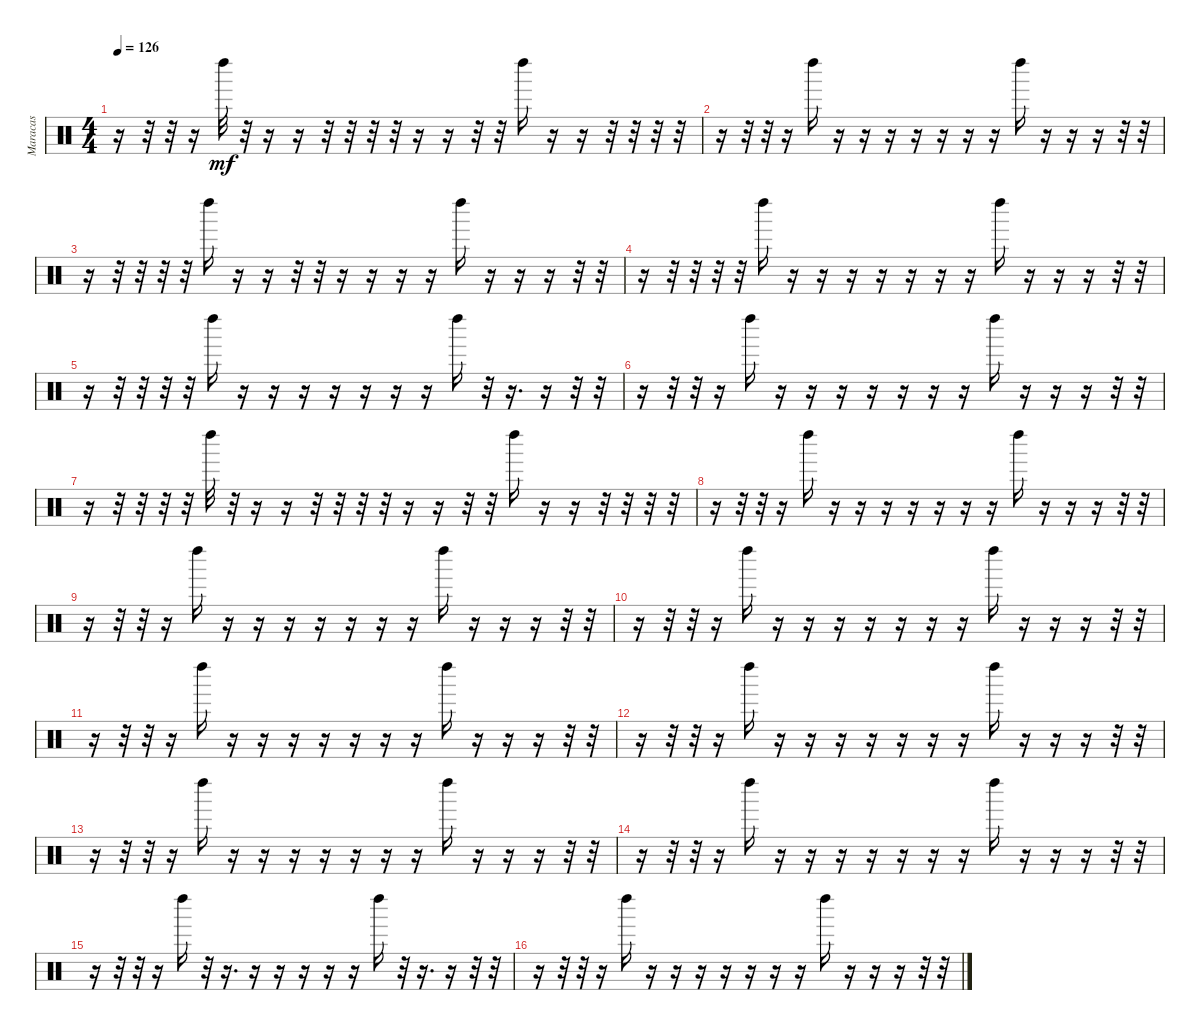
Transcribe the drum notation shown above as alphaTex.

\track ("Maracas" "Maracas") {instrument percussion}
\staff {score}
\articulation defaults
\ts (4 4)
\tempo 126
\clef neutral
\ks c
r.16{dy mf} r.32 r.32 r.16 "Left Maraca (hit)".32 r.32 r.16 r.16 r.32 r.32 r.32 r.32 r.16 r.16 r.32 r.32 "Left Maraca (hit)".16 r.16 r.16 r.32 r.32 r.32 r.32 |
r.16 r.32 r.32 r.16 "Left Maraca (hit)".16 r.16 r.16 r.16 r.16 r.16 r.16 r.16 "Left Maraca (hit)".16 r.16 r.16 r.16 r.32 r.32 |
r.16 r.32 r.32 r.32 r.32 "Left Maraca (hit)".16 r.16 r.16 r.32 r.32 r.16 r.16 r.16 r.16 "Left Maraca (hit)".16 r.16 r.16 r.16 r.32 r.32 |
r.16 r.32 r.32 r.32 r.32 "Left Maraca (hit)".16 r.16 r.16 r.16 r.16 r.16 r.16 r.16 "Left Maraca (hit)".16 r.16 r.16 r.16 r.32 r.32 |
r.16 r.32 r.32 r.32 r.32 "Left Maraca (hit)".16 r.16 r.16 r.16 r.16 r.16 r.16 r.16 "Left Maraca (hit)".16 r.32 r.16{d} r.16 r.32 r.32 |
r.16 r.32 r.32 r.16 "Left Maraca (hit)".16 r.16 r.16 r.16 r.16 r.16 r.16 r.16 "Left Maraca (hit)".16 r.16 r.16 r.16 r.32 r.32 |
r.16 r.32 r.32 r.32 r.32 "Left Maraca (hit)".32 r.32 r.16 r.16 r.32 r.32 r.32 r.32 r.16 r.16 r.32 r.32 "Left Maraca (hit)".16 r.16 r.16 r.32 r.32 r.32 r.32 |
r.16 r.32 r.32 r.16 "Left Maraca (hit)".16 r.16 r.16 r.16 r.16 r.16 r.16 r.16 "Left Maraca (hit)".16 r.16 r.16 r.16 r.32 r.32 |
r.16 r.32 r.32 r.16 "Left Maraca (hit)".16 r.16 r.16 r.16 r.16 r.16 r.16 r.16 "Left Maraca (hit)".16 r.16 r.16 r.16 r.32 r.32 |
r.16 r.32 r.32 r.16 "Left Maraca (hit)".16 r.16 r.16 r.16 r.16 r.16 r.16 r.16 "Left Maraca (hit)".16 r.16 r.16 r.16 r.32 r.32 |
r.16 r.32 r.32 r.16 "Left Maraca (hit)".16 r.16 r.16 r.16 r.16 r.16 r.16 r.16 "Left Maraca (hit)".16 r.16 r.16 r.16 r.32 r.32 |
r.16 r.32 r.32 r.16 "Left Maraca (hit)".16 r.16 r.16 r.16 r.16 r.16 r.16 r.16 "Left Maraca (hit)".16 r.16 r.16 r.16 r.32 r.32 |
r.16 r.32 r.32 r.16 "Left Maraca (hit)".16 r.16 r.16 r.16 r.16 r.16 r.16 r.16 "Left Maraca (hit)".16 r.16 r.16 r.16 r.32 r.32 |
r.16 r.32 r.32 r.16 "Left Maraca (hit)".16 r.16 r.16 r.16 r.16 r.16 r.16 r.16 "Left Maraca (hit)".16 r.16 r.16 r.16 r.32 r.32 |
r.16 r.32 r.32 r.16 "Left Maraca (hit)".16 r.32 r.16{d} r.16 r.16 r.16 r.16 r.16 "Left Maraca (hit)".16 r.32 r.16{d} r.16 r.32 r.32 |
r.16 r.32 r.32 r.16 "Left Maraca (hit)".16 r.16 r.16 r.16 r.16 r.16 r.16 r.16 "Left Maraca (hit)".16 r.16 r.16 r.16 r.32 r.32
